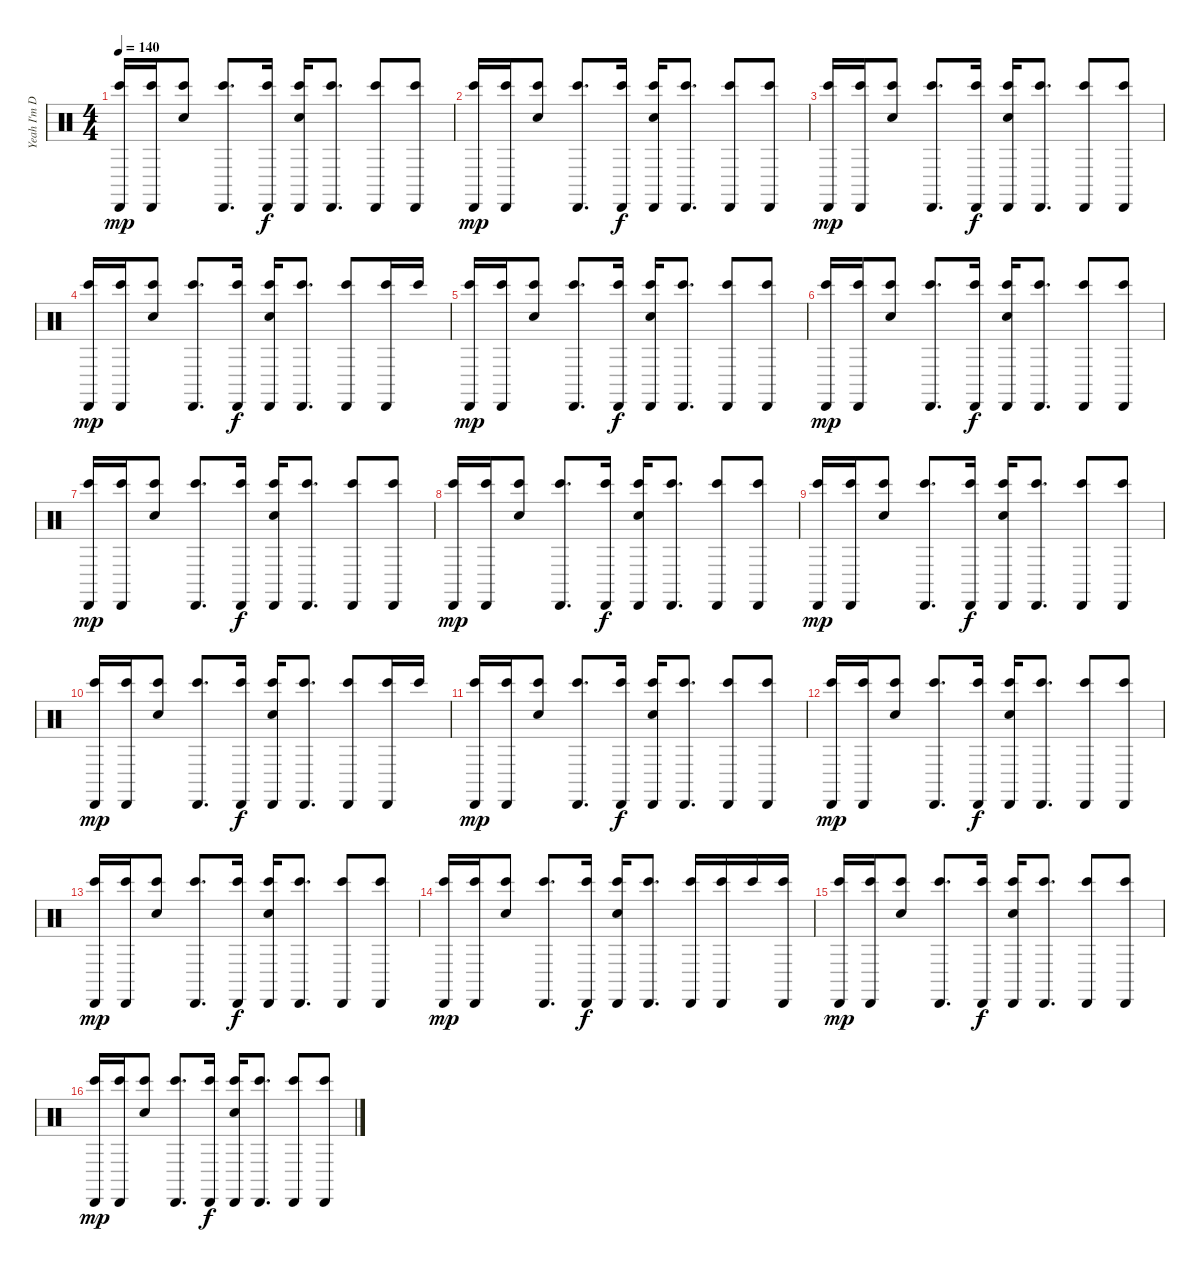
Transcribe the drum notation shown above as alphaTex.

\track ("Yeah I'm Doing Too Much..." "Yeah I'm D") {instrument percussion}
\staff {score}
\articulation defaults
\ts (4 4)
\tempo 140
\clef neutral
\ks c
("Bongo High (hit)" "Cabasa (hit)").16{dy mp balance 0} ("Bongo High (hit)" "Cabasa (hit)").16{balance 16} ("Bongo High (hit)" "Hand Clap (hit)").8{balance 0} ("Bongo High (hit)" "Cabasa (hit)").8{d balance 16} ("Bongo High (hit)" "Cabasa (hit)").16{dy f balance 0} ("Bongo High (hit)" "Cabasa (hit)" "Hand Clap (hit)").16{balance 16} ("Bongo High (hit)" "Cabasa (hit)").8{d balance 0} ("Bongo High (hit)" "Cabasa (hit)").8{balance 16} ("Bongo High (hit)" "Cabasa (hit)").8 |
("Bongo High (hit)" "Cabasa (hit)").16{dy mp balance 0} ("Bongo High (hit)" "Cabasa (hit)").16{balance 16} ("Bongo High (hit)" "Hand Clap (hit)").8{balance 0} ("Bongo High (hit)" "Cabasa (hit)").8{d balance 16} ("Bongo High (hit)" "Cabasa (hit)").16{dy f balance 0} ("Bongo High (hit)" "Cabasa (hit)" "Hand Clap (hit)").16{balance 16} ("Bongo High (hit)" "Cabasa (hit)").8{d balance 0} ("Bongo High (hit)" "Cabasa (hit)").8{balance 16} ("Bongo High (hit)" "Cabasa (hit)").8 |
("Bongo High (hit)" "Cabasa (hit)").16{dy mp balance 0} ("Bongo High (hit)" "Cabasa (hit)").16{balance 16} ("Bongo High (hit)" "Hand Clap (hit)").8{balance 0} ("Bongo High (hit)" "Cabasa (hit)").8{d balance 16} ("Bongo High (hit)" "Cabasa (hit)").16{dy f balance 0} ("Bongo High (hit)" "Cabasa (hit)" "Hand Clap (hit)").16{balance 16} ("Bongo High (hit)" "Cabasa (hit)").8{d balance 0} ("Bongo High (hit)" "Cabasa (hit)").8{balance 16} ("Bongo High (hit)" "Cabasa (hit)").8 |
("Bongo High (hit)" "Cabasa (hit)").16{dy mp balance 0} ("Bongo High (hit)" "Cabasa (hit)").16{balance 16} ("Bongo High (hit)" "Hand Clap (hit)").8{balance 0} ("Bongo High (hit)" "Cabasa (hit)").8{d balance 16} ("Bongo High (hit)" "Cabasa (hit)").16{dy f balance 0} ("Bongo High (hit)" "Cabasa (hit)" "Hand Clap (hit)").16{balance 16} ("Bongo High (hit)" "Cabasa (hit)").8{d balance 0} ("Bongo High (hit)" "Cabasa (hit)").8{balance 16} ("Bongo High (hit)" "Cabasa (hit)").16 "Bongo High (hit)".16 |
("Bongo High (hit)" "Cabasa (hit)").16{dy mp balance 0} ("Bongo High (hit)" "Cabasa (hit)").16{balance 16} ("Bongo High (hit)" "Hand Clap (hit)").8{balance 0} ("Bongo High (hit)" "Cabasa (hit)").8{d balance 16} ("Bongo High (hit)" "Cabasa (hit)").16{dy f balance 0} ("Bongo High (hit)" "Cabasa (hit)" "Hand Clap (hit)").16{balance 16} ("Bongo High (hit)" "Cabasa (hit)").8{d balance 0} ("Bongo High (hit)" "Cabasa (hit)").8{balance 16} ("Bongo High (hit)" "Cabasa (hit)").8 |
("Bongo High (hit)" "Cabasa (hit)").16{dy mp balance 0} ("Bongo High (hit)" "Cabasa (hit)").16{balance 16} ("Bongo High (hit)" "Hand Clap (hit)").8{balance 0} ("Bongo High (hit)" "Cabasa (hit)").8{d balance 16} ("Bongo High (hit)" "Cabasa (hit)").16{dy f balance 0} ("Bongo High (hit)" "Cabasa (hit)" "Hand Clap (hit)").16{balance 16} ("Bongo High (hit)" "Cabasa (hit)").8{d balance 0} ("Bongo High (hit)" "Cabasa (hit)").8{balance 16} ("Bongo High (hit)" "Cabasa (hit)").8 |
("Bongo High (hit)" "Cabasa (hit)").16{dy mp balance 0} ("Bongo High (hit)" "Cabasa (hit)").16{balance 16} ("Bongo High (hit)" "Hand Clap (hit)").8{balance 0} ("Bongo High (hit)" "Cabasa (hit)").8{d balance 16} ("Bongo High (hit)" "Cabasa (hit)").16{dy f balance 0} ("Bongo High (hit)" "Cabasa (hit)" "Hand Clap (hit)").16{balance 16} ("Bongo High (hit)" "Cabasa (hit)").8{d balance 0} ("Bongo High (hit)" "Cabasa (hit)").8{balance 16} ("Bongo High (hit)" "Cabasa (hit)").8 |
("Bongo High (hit)" "Cabasa (hit)").16{dy mp balance 0} ("Bongo High (hit)" "Cabasa (hit)").16{balance 16} ("Bongo High (hit)" "Hand Clap (hit)").8{balance 0} ("Bongo High (hit)" "Cabasa (hit)").8{d balance 16} ("Bongo High (hit)" "Cabasa (hit)").16{dy f balance 0} ("Bongo High (hit)" "Cabasa (hit)" "Hand Clap (hit)").16{balance 16} ("Bongo High (hit)" "Cabasa (hit)").8{d balance 0} ("Bongo High (hit)" "Cabasa (hit)").8{balance 16} ("Bongo High (hit)" "Cabasa (hit)").8 |
("Bongo High (hit)" "Cabasa (hit)").16{dy mp balance 0} ("Bongo High (hit)" "Cabasa (hit)").16{balance 16} ("Bongo High (hit)" "Hand Clap (hit)").8{balance 0} ("Bongo High (hit)" "Cabasa (hit)").8{d balance 16} ("Bongo High (hit)" "Cabasa (hit)").16{dy f balance 0} ("Bongo High (hit)" "Cabasa (hit)" "Hand Clap (hit)").16{balance 16} ("Bongo High (hit)" "Cabasa (hit)").8{d balance 0} ("Bongo High (hit)" "Cabasa (hit)").8{balance 16} ("Bongo High (hit)" "Cabasa (hit)").8 |
("Bongo High (hit)" "Cabasa (hit)").16{dy mp balance 0} ("Bongo High (hit)" "Cabasa (hit)").16{balance 16} ("Bongo High (hit)" "Hand Clap (hit)").8{balance 0} ("Bongo High (hit)" "Cabasa (hit)").8{d balance 16} ("Bongo High (hit)" "Cabasa (hit)").16{dy f balance 0} ("Bongo High (hit)" "Cabasa (hit)" "Hand Clap (hit)").16{balance 16} ("Bongo High (hit)" "Cabasa (hit)").8{d balance 0} ("Bongo High (hit)" "Cabasa (hit)").8{balance 16} ("Bongo High (hit)" "Cabasa (hit)").16 "Bongo High (hit)".16 |
("Bongo High (hit)" "Cabasa (hit)").16{dy mp balance 0} ("Bongo High (hit)" "Cabasa (hit)").16{balance 16} ("Bongo High (hit)" "Hand Clap (hit)").8{balance 0} ("Bongo High (hit)" "Cabasa (hit)").8{d balance 16} ("Bongo High (hit)" "Cabasa (hit)").16{dy f balance 0} ("Bongo High (hit)" "Cabasa (hit)" "Hand Clap (hit)").16{balance 16} ("Bongo High (hit)" "Cabasa (hit)").8{d balance 0} ("Bongo High (hit)" "Cabasa (hit)").8{balance 16} ("Bongo High (hit)" "Cabasa (hit)").8 |
("Bongo High (hit)" "Cabasa (hit)").16{dy mp balance 0} ("Bongo High (hit)" "Cabasa (hit)").16{balance 16} ("Bongo High (hit)" "Hand Clap (hit)").8{balance 0} ("Bongo High (hit)" "Cabasa (hit)").8{d balance 16} ("Bongo High (hit)" "Cabasa (hit)").16{dy f balance 0} ("Bongo High (hit)" "Cabasa (hit)" "Hand Clap (hit)").16{balance 16} ("Bongo High (hit)" "Cabasa (hit)").8{d balance 0} ("Bongo High (hit)" "Cabasa (hit)").8{balance 16} ("Bongo High (hit)" "Cabasa (hit)").8 |
("Bongo High (hit)" "Cabasa (hit)").16{dy mp balance 0} ("Bongo High (hit)" "Cabasa (hit)").16{balance 16} ("Bongo High (hit)" "Hand Clap (hit)").8{balance 0} ("Bongo High (hit)" "Cabasa (hit)").8{d balance 16} ("Bongo High (hit)" "Cabasa (hit)").16{dy f balance 0} ("Bongo High (hit)" "Cabasa (hit)" "Hand Clap (hit)").16{balance 16} ("Bongo High (hit)" "Cabasa (hit)").8{d balance 0} ("Bongo High (hit)" "Cabasa (hit)").8{balance 16} ("Bongo High (hit)" "Cabasa (hit)").8 |
("Bongo High (hit)" "Cabasa (hit)").16{dy mp volume 0 balance 0} ("Bongo High (hit)" "Cabasa (hit)").16{balance 16} ("Bongo High (hit)" "Hand Clap (hit)").8{balance 0} ("Bongo High (hit)" "Cabasa (hit)").8{d balance 16} ("Bongo High (hit)" "Cabasa (hit)").16{dy f balance 0} ("Bongo High (hit)" "Cabasa (hit)" "Hand Clap (hit)").16{balance 16} ("Bongo High (hit)" "Cabasa (hit)").8{d balance 0} ("Bongo High (hit)" "Cabasa (hit)").16{balance 16} ("Bongo High (hit)" "Cabasa (hit)").16 "Bongo High (hit)".16{balance 0} ("Bongo High (hit)" "Cabasa (hit)").16{balance 16} |
("Bongo High (hit)" "Cabasa (hit)").16{dy mp balance 0} ("Bongo High (hit)" "Cabasa (hit)").16{balance 16} ("Bongo High (hit)" "Hand Clap (hit)").8{balance 0} ("Bongo High (hit)" "Cabasa (hit)").8{d balance 16} ("Bongo High (hit)" "Cabasa (hit)").16{dy f balance 0} ("Bongo High (hit)" "Cabasa (hit)" "Hand Clap (hit)").16{balance 16} ("Bongo High (hit)" "Cabasa (hit)").8{d balance 0} ("Bongo High (hit)" "Cabasa (hit)").8{balance 16} ("Bongo High (hit)" "Cabasa (hit)").8 |
("Bongo High (hit)" "Cabasa (hit)").16{dy mp balance 0} ("Bongo High (hit)" "Cabasa (hit)").16{balance 16} ("Bongo High (hit)" "Hand Clap (hit)").8{balance 0} ("Bongo High (hit)" "Cabasa (hit)").8{d balance 16} ("Bongo High (hit)" "Cabasa (hit)").16{dy f balance 0} ("Bongo High (hit)" "Cabasa (hit)" "Hand Clap (hit)").16{balance 16} ("Bongo High (hit)" "Cabasa (hit)").8{d balance 0} ("Bongo High (hit)" "Cabasa (hit)").8{balance 16} ("Bongo High (hit)" "Cabasa (hit)").8
